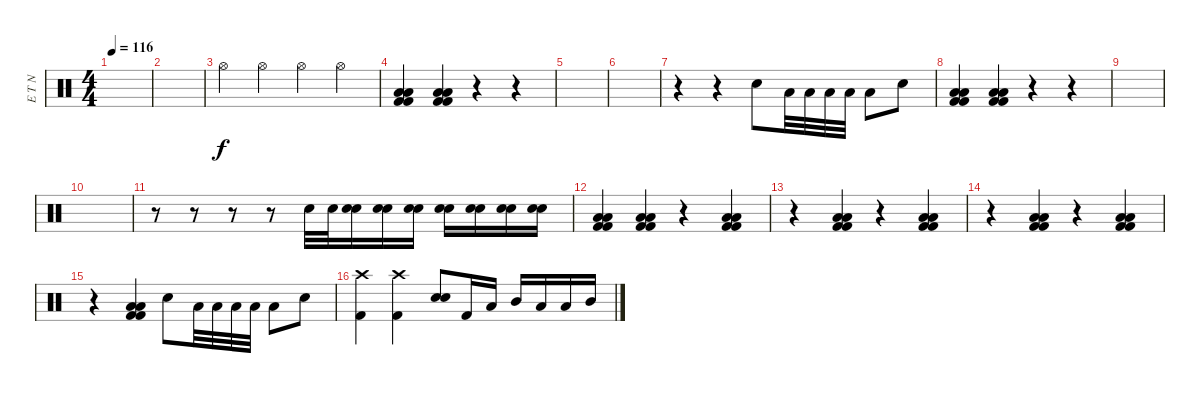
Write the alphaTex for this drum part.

\track ("E T N" "E T N") {instrument percussion}
\staff {score}
\articulation defaults
\ts (4 4)
\tempo 116
\clef neutral
\ks c
|
|
"Hi-Hat (open)".4 "Hi-Hat (open)".4 "Hi-Hat (open)".4 "Hi-Hat (open)".4 |
("Low Tom (hit)" "Low Floor Tom (hit)" "Kick (hit) 2" "Kick (hit) 2").4 ("Low Tom (hit)" "Low Floor Tom (hit)" "Kick (hit) 2" "Kick (hit) 2").4 r.4 r.4 |
|
|
r.4 r.4 "Electric Snare (hit)".8 "Low Tom (hit)".32 "Low Tom (hit)".32 "Low Tom (hit)".32 "Low Tom (hit)".32 "Low Tom (hit)".8 "Electric Snare (hit)".8 |
("Low Tom (hit)" "Low Floor Tom (hit)" "Kick (hit) 2" "Kick (hit) 2").4 ("Low Tom (hit)" "Low Floor Tom (hit)" "Kick (hit) 2" "Kick (hit) 2").4 r.4 r.4 |
|
|
r.8 r.8 r.8 r.8 "Electric Snare (hit)".32 "Electric Snare (hit)".32 ("Electric Snare (hit)" "Electric Snare (hit)").16 ("Electric Snare (hit)" "Electric Snare (hit)").16 ("Electric Snare (hit)" "Electric Snare (hit)").16 ("Electric Snare (hit)" "Electric Snare (hit)").16 ("Electric Snare (hit)" "Electric Snare (hit)").16 ("Electric Snare (hit)" "Electric Snare (hit)").16 ("Electric Snare (hit)" "Electric Snare (hit)").16 |
("Low Tom (hit)" "Low Floor Tom (hit)" "Kick (hit) 2" "Kick (hit) 2").4 ("Low Tom (hit)" "Low Floor Tom (hit)" "Kick (hit) 2" "Kick (hit) 2").4 r.4 ("Low Tom (hit)" "Low Floor Tom (hit)" "Kick (hit) 2" "Kick (hit) 2").4 |
r.4 ("Low Tom (hit)" "Low Floor Tom (hit)" "Kick (hit) 2" "Kick (hit) 2").4 r.4 ("Low Tom (hit)" "Low Floor Tom (hit)" "Kick (hit) 2" "Kick (hit) 2").4 |
r.4 ("Low Tom (hit)" "Low Floor Tom (hit)" "Kick (hit) 2" "Kick (hit) 2").4 r.4 ("Low Tom (hit)" "Low Floor Tom (hit)" "Kick (hit) 2" "Kick (hit) 2").4 |
r.4 ("Low Tom (hit)" "Low Floor Tom (hit)" "Kick (hit) 2" "Kick (hit) 2").4 "Electric Snare (hit)".8 "Low Tom (hit)".32 "Low Tom (hit)".32 "Low Tom (hit)".32 "Low Tom (hit)".32 "Low Tom (hit)".8 "Electric Snare (hit)".8 |
("Crash high (hit)" "Kick (hit) 2").4 ("Crash high (hit)" "Kick (hit) 2").4 ("Electric Snare (hit)" "Electric Snare (hit)").8 "Kick (hit) 2".16 "Low Tom (hit)".16 "Mid Tom (hit)".16 "Low Tom (hit)".16 "Low Tom (hit)".16 "Mid Tom (hit)".16
